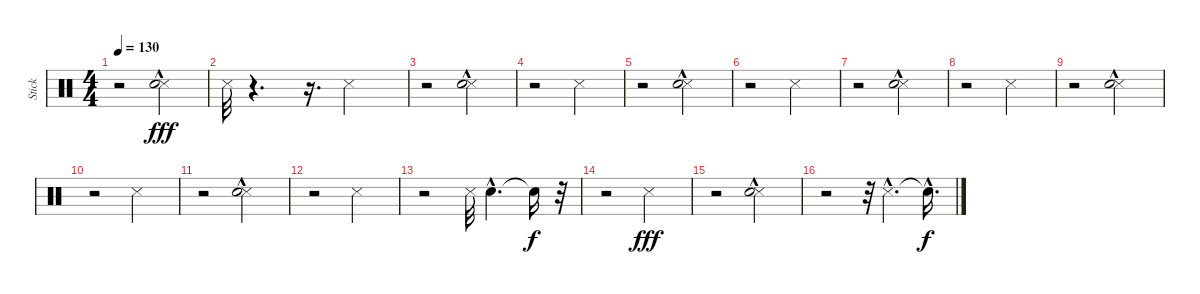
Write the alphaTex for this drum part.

\track ("Stick" "Stick") {instrument percussion}
\staff {score}
\articulation defaults
\ts (4 4)
\tempo 130
\clef neutral
\ks c
r.2{dy fff} ("Snare (side stick) 3" "Snare (hit) 2"{hac}).2 |
"Snare (side stick) 3".32 r.4{d} r.16{d} "Snare (side stick) 3".2 |
r.2 ("Snare (side stick) 3" "Snare (hit) 2"{hac}).2 |
r.2 "Snare (side stick) 3".2 |
r.2 ("Snare (side stick) 3" "Snare (hit) 2"{hac}).2 |
r.2 "Snare (side stick) 3".2 |
r.2 ("Snare (side stick) 3" "Snare (hit) 2"{hac}).2 |
r.2 "Snare (side stick) 3".2 |
r.2 ("Snare (side stick) 3" "Snare (hit) 2"{hac}).2 |
r.2 "Snare (side stick) 3".2 |
r.2 ("Snare (side stick) 3" "Snare (hit) 2"{hac}).2 |
r.2 "Snare (side stick) 3".2 |
r.2 "Snare (side stick) 3".32 "Snare (hit) 2"{hac}.4{d} "Snare (hit)"{t}.16{dy f} r.32 |
r.2 "Snare (side stick) 3".2{dy fff} |
r.2 ("Snare (side stick) 3" "Snare (hit) 2"{hac}).2 |
r.2 r.32 "Snare (side stick) 3"{hac}.4{d} "Snare (hit)"{hac t}.16{d dy f}
